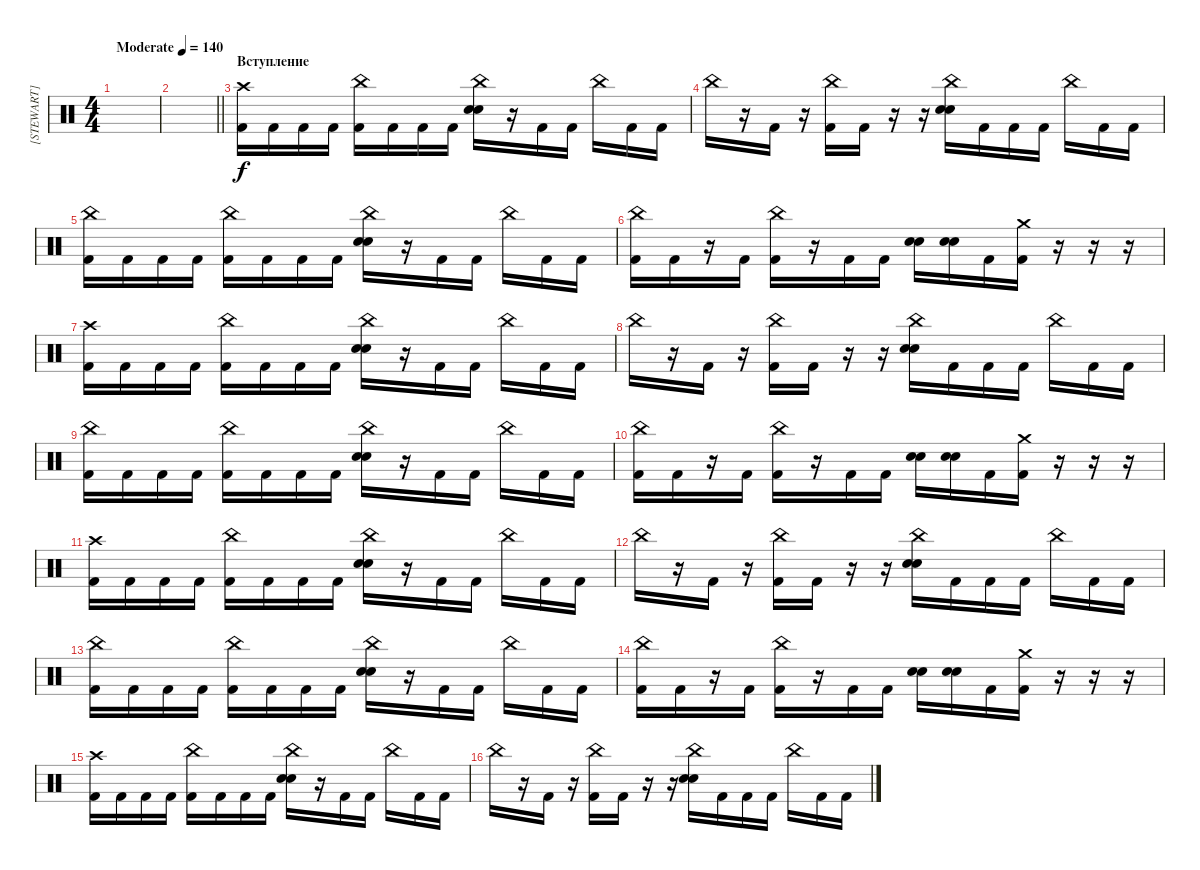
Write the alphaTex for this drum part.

\track ("[STEWART]" "[STEWART]") {instrument percussion}
\staff {score}
\articulation defaults
\ts (4 4)
\tempo (140 "Moderate")
\clef neutral
\ks c
|
\barLineRight lightlight
|
\section ("" "Вступление")
("Crash high (hit)" "Kick (hit) 2").16 "Kick (hit) 2".16 "Kick (hit) 2".16 "Kick (hit) 2".16 ("China (hit)" "Kick (hit) 2").16 "Kick (hit) 2".16 "Kick (hit) 2".16 "Kick (hit) 2".16 ("China (hit)" "Electric Snare (hit)" "Snare (hit) 2").16 r.16 "Kick (hit) 2".16 "Kick (hit) 2".16 "China (hit)".16 "Kick (hit) 2".16 "Kick (hit) 2".16 |
"China (hit)".16 r.16 "Kick (hit) 2".16 r.16 ("China (hit)" "Kick (hit) 2").16 "Kick (hit) 2".16 r.16 r.16 ("China (hit)" "Electric Snare (hit)" "Snare (hit) 2").16 "Kick (hit) 2".16 "Kick (hit) 2".16 "Kick (hit) 2".16 "China (hit)".16 "Kick (hit) 2".16 "Kick (hit) 2".16 |
("China (hit)" "Kick (hit) 2").16 "Kick (hit) 2".16 "Kick (hit) 2".16 "Kick (hit) 2".16 ("China (hit)" "Kick (hit) 2").16 "Kick (hit) 2".16 "Kick (hit) 2".16 "Kick (hit) 2".16 ("China (hit)" "Electric Snare (hit)" "Snare (hit) 2").16 r.16 "Kick (hit) 2".16 "Kick (hit) 2".16 "China (hit)".16 "Kick (hit) 2".16 "Kick (hit) 2".16 |
("China (hit)" "Kick (hit) 2").16 "Kick (hit) 2".16 r.16 "Kick (hit) 2".16 ("China (hit)" "Kick (hit) 2").16 r.16 "Kick (hit) 2".16 "Kick (hit) 2".16 ("Electric Snare (hit)" "Snare (hit) 2").16 ("Electric Snare (hit)" "Snare (hit) 2").16 "Kick (hit) 2".16 ("Crash medium (hit)" "Kick (hit) 2").16 r.16 r.16 r.16 |
("Crash high (hit)" "Kick (hit) 2").16 "Kick (hit) 2".16 "Kick (hit) 2".16 "Kick (hit) 2".16 ("China (hit)" "Kick (hit) 2").16 "Kick (hit) 2".16 "Kick (hit) 2".16 "Kick (hit) 2".16 ("China (hit)" "Electric Snare (hit)" "Snare (hit) 2").16 r.16 "Kick (hit) 2".16 "Kick (hit) 2".16 "China (hit)".16 "Kick (hit) 2".16 "Kick (hit) 2".16 |
"China (hit)".16 r.16 "Kick (hit) 2".16 r.16 ("China (hit)" "Kick (hit) 2").16 "Kick (hit) 2".16 r.16 r.16 ("China (hit)" "Electric Snare (hit)" "Snare (hit) 2").16 "Kick (hit) 2".16 "Kick (hit) 2".16 "Kick (hit) 2".16 "China (hit)".16 "Kick (hit) 2".16 "Kick (hit) 2".16 |
("China (hit)" "Kick (hit) 2").16 "Kick (hit) 2".16 "Kick (hit) 2".16 "Kick (hit) 2".16 ("China (hit)" "Kick (hit) 2").16 "Kick (hit) 2".16 "Kick (hit) 2".16 "Kick (hit) 2".16 ("China (hit)" "Electric Snare (hit)" "Snare (hit) 2").16 r.16 "Kick (hit) 2".16 "Kick (hit) 2".16 "China (hit)".16 "Kick (hit) 2".16 "Kick (hit) 2".16 |
("China (hit)" "Kick (hit) 2").16 "Kick (hit) 2".16 r.16 "Kick (hit) 2".16 ("China (hit)" "Kick (hit) 2").16 r.16 "Kick (hit) 2".16 "Kick (hit) 2".16 ("Electric Snare (hit)" "Snare (hit) 2").16 ("Electric Snare (hit)" "Snare (hit) 2").16 "Kick (hit) 2".16 ("Crash medium (hit)" "Kick (hit) 2").16 r.16 r.16 r.16 |
("Crash high (hit)" "Kick (hit) 2").16 "Kick (hit) 2".16 "Kick (hit) 2".16 "Kick (hit) 2".16 ("China (hit)" "Kick (hit) 2").16 "Kick (hit) 2".16 "Kick (hit) 2".16 "Kick (hit) 2".16 ("China (hit)" "Electric Snare (hit)" "Snare (hit) 2").16 r.16 "Kick (hit) 2".16 "Kick (hit) 2".16 "China (hit)".16 "Kick (hit) 2".16 "Kick (hit) 2".16 |
"China (hit)".16 r.16 "Kick (hit) 2".16 r.16 ("China (hit)" "Kick (hit) 2").16 "Kick (hit) 2".16 r.16 r.16 ("China (hit)" "Electric Snare (hit)" "Snare (hit) 2").16 "Kick (hit) 2".16 "Kick (hit) 2".16 "Kick (hit) 2".16 "China (hit)".16 "Kick (hit) 2".16 "Kick (hit) 2".16 |
("China (hit)" "Kick (hit) 2").16 "Kick (hit) 2".16 "Kick (hit) 2".16 "Kick (hit) 2".16 ("China (hit)" "Kick (hit) 2").16 "Kick (hit) 2".16 "Kick (hit) 2".16 "Kick (hit) 2".16 ("China (hit)" "Electric Snare (hit)" "Snare (hit) 2").16 r.16 "Kick (hit) 2".16 "Kick (hit) 2".16 "China (hit)".16 "Kick (hit) 2".16 "Kick (hit) 2".16 |
("China (hit)" "Kick (hit) 2").16 "Kick (hit) 2".16 r.16 "Kick (hit) 2".16 ("China (hit)" "Kick (hit) 2").16 r.16 "Kick (hit) 2".16 "Kick (hit) 2".16 ("Electric Snare (hit)" "Snare (hit) 2").16 ("Electric Snare (hit)" "Snare (hit) 2").16 "Kick (hit) 2".16 ("Crash medium (hit)" "Kick (hit) 2").16 r.16 r.16 r.16 |
("Crash high (hit)" "Kick (hit) 2").16 "Kick (hit) 2".16 "Kick (hit) 2".16 "Kick (hit) 2".16 ("China (hit)" "Kick (hit) 2").16 "Kick (hit) 2".16 "Kick (hit) 2".16 "Kick (hit) 2".16 ("China (hit)" "Electric Snare (hit)" "Snare (hit) 2").16 r.16 "Kick (hit) 2".16 "Kick (hit) 2".16 "China (hit)".16 "Kick (hit) 2".16 "Kick (hit) 2".16 |
"China (hit)".16 r.16 "Kick (hit) 2".16 r.16 ("China (hit)" "Kick (hit) 2").16 "Kick (hit) 2".16 r.16 r.16 ("China (hit)" "Electric Snare (hit)" "Snare (hit) 2").16 "Kick (hit) 2".16 "Kick (hit) 2".16 "Kick (hit) 2".16 "China (hit)".16 "Kick (hit) 2".16 "Kick (hit) 2".16
